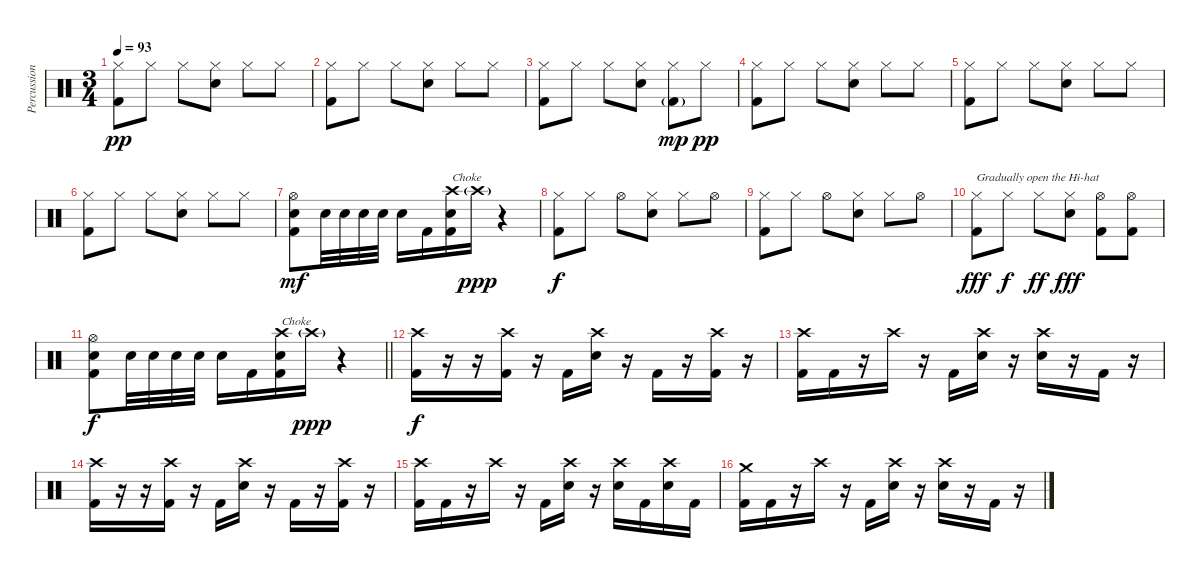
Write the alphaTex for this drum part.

\track ("Percussion" "Percussion") {instrument percussion}
\staff {score}
\articulation defaults
\ts (3 4)
\tempo 93
\clef neutral
\ks c
("Hi-Hat (closed)" "Kick (hit) 2").8{dy pp} "Hi-Hat (closed)".8 "Hi-Hat (closed)".8 ("Hi-Hat (closed)" "Snare (hit) 2").8 "Hi-Hat (closed)".8 "Hi-Hat (closed)".8 |
("Hi-Hat (closed)" "Kick (hit) 2").8 "Hi-Hat (closed)".8 "Hi-Hat (closed)".8 ("Hi-Hat (closed)" "Snare (hit) 2").8 "Hi-Hat (closed)".8 "Hi-Hat (closed)".8 |
("Hi-Hat (closed)" "Kick (hit) 2").8 "Hi-Hat (closed)".8 "Hi-Hat (closed)".8 ("Hi-Hat (closed)" "Snare (hit) 2").8 ("Hi-Hat (closed)" "Kick (hit) 2"{g}).8{dy mp} "Hi-Hat (closed)".8{dy pp} |
("Hi-Hat (closed)" "Kick (hit) 2").8 "Hi-Hat (closed)".8 "Hi-Hat (closed)".8 ("Hi-Hat (closed)" "Snare (hit) 2").8 "Hi-Hat (closed)".8 "Hi-Hat (closed)".8 |
("Hi-Hat (closed)" "Kick (hit) 2").8 "Hi-Hat (closed)".8 "Hi-Hat (closed)".8 ("Hi-Hat (closed)" "Snare (hit) 2").8 "Hi-Hat (closed)".8 "Hi-Hat (closed)".8 |
("Hi-Hat (closed)" "Kick (hit) 2").8 "Hi-Hat (closed)".8 "Hi-Hat (closed)".8 ("Hi-Hat (closed)" "Snare (hit) 2").8 "Hi-Hat (closed)".8 "Hi-Hat (closed)".8 |
("Hi-Hat (open)" "Snare (hit) 2" "Kick (hit) 2").8{dy mf} "Snare (hit) 2".32 "Snare (hit) 2".32 "Snare (hit) 2".32 "Snare (hit) 2".32 "Snare (hit) 2".16 "Kick (hit) 2".16 ("Crash high (hit)" "Snare (hit) 2" "Kick (hit) 2").16{txt "Choke"} "Crash high (hit)"{g}.16{dy ppp} r.4 |
("Hi-Hat (closed)" "Kick (hit) 2").8{dy f} "Hi-Hat (closed)".8 "Hi-Hat (open)".8 ("Hi-Hat (closed)" "Snare (hit) 2").8 "Hi-Hat (closed)".8 "Hi-Hat (open)".8 |
("Hi-Hat (closed)" "Kick (hit) 2").8 "Hi-Hat (closed)".8 "Hi-Hat (open)".8 ("Hi-Hat (closed)" "Snare (hit) 2").8 "Hi-Hat (closed)".8 "Hi-Hat (open)".8 |
("Hi-Hat (closed)" "Kick (hit) 2").8{txt "Gradually open the Hi-hat" dy fff} "Hi-Hat (closed)".8{dy f} "Hi-Hat (closed)".8{dy ff} ("Hi-Hat (closed)" "Snare (hit) 2").8{dy fff} ("Hi-Hat (open)" "Kick (hit) 2").8 ("Hi-Hat (open)" "Kick (hit) 2").8 |
\barLineRight lightlight
("Hi-Hat (open)" "Snare (hit) 2" "Kick (hit) 2").8{dy f} "Snare (hit) 2".32 "Snare (hit) 2".32 "Snare (hit) 2".32 "Snare (hit) 2".32 "Snare (hit) 2".16 "Kick (hit) 2".16 ("Crash high (hit)" "Snare (hit) 2" "Kick (hit) 2").16{txt "Choke"} "Crash high (hit)"{g}.16{dy ppp} r.4 |
\section ("" "")
("Crash high (hit)" "Kick (hit) 2").16{dy f} r.16 r.16 ("Crash high (hit)" "Kick (hit) 2").16 r.16 "Kick (hit) 2".16 ("Crash high (hit)" "Electric Snare (hit)").16 r.16 "Kick (hit) 2".16 r.16 ("Crash high (hit)" "Kick (hit) 2").16 r.16 |
("Crash high (hit)" "Kick (hit) 2").16 "Kick (hit) 2".16 r.16 "Crash high (hit)".16 r.16 "Kick (hit) 2".16 ("Crash high (hit)" "Electric Snare (hit)").16 r.16 ("Crash high (hit)" "Electric Snare (hit)").16 r.16 "Kick (hit) 2".16 r.16 |
("Crash high (hit)" "Kick (hit) 2").16 r.16 r.16 ("Crash high (hit)" "Kick (hit) 2").16 r.16 "Kick (hit) 2".16 ("Crash high (hit)" "Electric Snare (hit)").16 r.16 "Kick (hit) 2".16 r.16 ("Crash high (hit)" "Kick (hit) 2").16 r.16 |
("Crash high (hit)" "Kick (hit) 2").16 "Kick (hit) 2".16 r.16 "Crash high (hit)".16 r.16 "Kick (hit) 2".16 ("Crash high (hit)" "Electric Snare (hit)").16 r.16 ("Crash high (hit)" "Electric Snare (hit)").16 "Kick (hit) 2".16 ("Crash high (hit)" "Electric Snare (hit)").16 "Kick (hit) 2".16 |
("Crash medium (hit)" "Kick (hit) 2").16 "Kick (hit) 2".16 r.16 "Crash high (hit)".16 r.16 "Kick (hit) 2".16 ("Crash high (hit)" "Electric Snare (hit)").16 r.16 ("Crash high (hit)" "Electric Snare (hit)").16 r.16 "Kick (hit) 2".16 r.16
